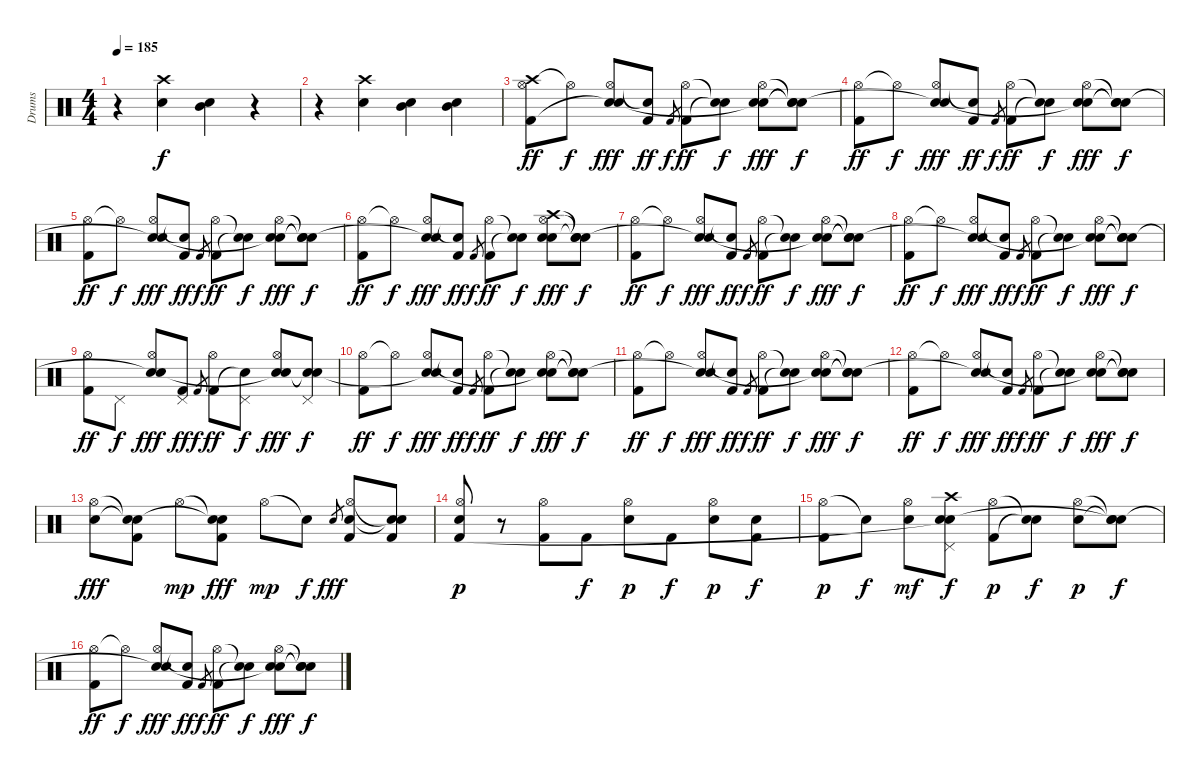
\track ("Drums" "Drums") {instrument percussion}
\staff {score}
\articulation defaults
\ts (4 4)
\tempo 185
\clef neutral
\ks c
r.4{dy f} ("Crash high (hit)" "Electric Snare (hit)").4 ("Electric Snare (hit)" "Mid Tom (hit)").4 r.4 |
r.4 ("Crash high (hit)" "Electric Snare (hit)").4 ("Electric Snare (hit)" "Mid Tom (hit)").4 ("Electric Snare (hit)" "Mid Tom (hit)").4 |
("Crash high (hit)" "Hi-Hat (open)" "Kick (hit) 2").8{dy ff} "Hi-Hat (open)"{t}.8{dy f} ("Hi-Hat (open)" "Electric Snare (hit)" "Snare (hit)"{t}).8{dy fff} ("Snare (hit)"{t} "Kick (hit) 2").8{dy ff} "Kick (hit) 2".8{gr dy f} ("Hi-Hat (open)" "Kick (hit) 2").8{dy ff} ("Snare (hit)"{t} "Snare (hit)"{t}).8{dy f} ("Hi-Hat (open)" "Electric Snare (hit)" "Snare (hit)"{t}).8{dy fff} ("Snare (hit)"{t} "Snare (hit)"{t} "Snare (hit)"{t}).8{dy f} |
("Hi-Hat (open)" "Kick (hit) 2").8{dy ff} "Hi-Hat (open)"{t}.8{dy f} ("Hi-Hat (open)" "Electric Snare (hit)" "Snare (hit)"{t}).8{dy fff} ("Snare (hit)"{t} "Kick (hit) 2").8{dy ff} "Kick (hit) 2".8{gr dy f} ("Hi-Hat (open)" "Kick (hit) 2").8{dy ff} ("Snare (hit)"{t} "Snare (hit)"{t}).8{dy f} ("Hi-Hat (open)" "Electric Snare (hit)" "Snare (hit)"{t}).8{dy fff} ("Snare (hit)"{t} "Snare (hit)"{t} "Snare (hit)"{t}).8{dy f} |
("Hi-Hat (open)" "Kick (hit) 2").8{dy ff} "Hi-Hat (open)"{t}.8{dy f} ("Hi-Hat (open)" "Electric Snare (hit)" "Snare (hit)"{t}).8{dy fff} ("Snare (hit)"{t} "Kick (hit) 2").8{dy ff} "Kick (hit) 2".8{gr dy f} ("Hi-Hat (open)" "Kick (hit) 2").8{dy ff} ("Snare (hit)"{t} "Snare (hit)"{t}).8{dy f} ("Hi-Hat (open)" "Electric Snare (hit)" "Snare (hit)"{t}).8{dy fff} ("Snare (hit)"{t} "Snare (hit)"{t} "Snare (hit)"{t}).8{dy f} |
("Hi-Hat (open)" "Kick (hit) 2").8{dy ff} "Hi-Hat (open)"{t}.8{dy f} ("Hi-Hat (open)" "Electric Snare (hit)" "Snare (hit)"{t}).8{dy fff} ("Snare (hit)"{t} "Kick (hit) 2").8{dy ff} "Kick (hit) 2".8{gr dy f} ("Hi-Hat (open)" "Kick (hit) 2").8{dy ff} ("Snare (hit)"{t} "Snare (hit)"{t}).8{dy f} ("Crash high (hit)" "Hi-Hat (open)" "Electric Snare (hit)" "Snare (hit)").8{dy fff} ("Snare (hit)"{t} "Snare (hit)"{t} "Snare (hit)"{t}).8{dy f} |
("Hi-Hat (open)" "Kick (hit) 2").8{dy ff} "Hi-Hat (open)"{t}.8{dy f} ("Hi-Hat (open)" "Electric Snare (hit)" "Snare (hit)"{t}).8{dy fff} ("Snare (hit)"{t} "Kick (hit) 2").8{dy ff} "Kick (hit) 2".8{gr dy f} ("Hi-Hat (open)" "Kick (hit) 2").8{dy ff} ("Snare (hit)"{t} "Snare (hit)"{t}).8{dy f} ("Hi-Hat (open)" "Electric Snare (hit)" "Snare (hit)"{t}).8{dy fff} ("Snare (hit)"{t} "Snare (hit)"{t} "Snare (hit)"{t}).8{dy f} |
("Hi-Hat (open)" "Kick (hit) 2").8{dy ff} "Hi-Hat (open)"{t}.8{dy f} ("Hi-Hat (open)" "Electric Snare (hit)" "Snare (hit)"{t}).8{dy fff} ("Snare (hit)"{t} "Kick (hit) 2").8{dy ff} "Kick (hit) 2".8{gr dy f} ("Hi-Hat (open)" "Kick (hit) 2").8{dy ff} ("Snare (hit)"{t} "Snare (hit)"{t}).8{dy f} ("Hi-Hat (open)" "Electric Snare (hit)" "Snare (hit)"{t}).8{dy fff} ("Snare (hit)"{t} "Snare (hit)"{t} "Snare (hit)"{t}).8{dy f} |
("Hi-Hat (open)" "Kick (hit) 2").8{dy ff} "Pedal Hi-Hat (hit)".8{dy f} ("Hi-Hat (open)" "Electric Snare (hit)" "Snare (hit)"{t}).8{dy fff} ("Pedal Hi-Hat (hit)" "Kick (hit) 2").8{dy ff} "Kick (hit) 2".8{gr dy f} ("Hi-Hat (open)" "Kick (hit) 2").8{dy ff} ("Pedal Hi-Hat (hit)" "Snare (hit)"{t}).8{dy f} ("Hi-Hat (open)" "Electric Snare (hit)" "Snare (hit)"{t}).8{dy fff} ("Pedal Hi-Hat (hit)" "Snare (hit)"{t} "Snare (hit)"{t}).8{dy f} |
("Hi-Hat (open)" "Kick (hit) 2").8{dy ff} "Hi-Hat (open)"{t}.8{dy f} ("Hi-Hat (open)" "Electric Snare (hit)" "Snare (hit)"{t}).8{dy fff} ("Snare (hit)"{t} "Kick (hit) 2").8{dy ff} "Kick (hit) 2".8{gr dy f} ("Hi-Hat (open)" "Kick (hit) 2").8{dy ff} ("Snare (hit)"{t} "Snare (hit)"{t}).8{dy f} ("Hi-Hat (open)" "Electric Snare (hit)" "Snare (hit)"{t}).8{dy fff} ("Snare (hit)"{t} "Snare (hit)"{t} "Snare (hit)"{t}).8{dy f} |
("Hi-Hat (open)" "Kick (hit) 2").8{dy ff} "Hi-Hat (open)"{t}.8{dy f} ("Hi-Hat (open)" "Electric Snare (hit)" "Snare (hit)"{t}).8{dy fff} ("Snare (hit)"{t} "Kick (hit) 2").8{dy ff} "Kick (hit) 2".8{gr dy f} ("Hi-Hat (open)" "Kick (hit) 2").8{dy ff} ("Snare (hit)"{t} "Snare (hit)"{t}).8{dy f} ("Hi-Hat (open)" "Electric Snare (hit)" "Snare (hit)"{t}).8{dy fff} ("Snare (hit)"{t} "Snare (hit)"{t} "Snare (hit)"{t}).8{dy f} |
("Hi-Hat (open)" "Kick (hit) 2").8{dy ff} "Hi-Hat (open)"{t}.8{dy f} ("Hi-Hat (open)" "Electric Snare (hit)" "Snare (hit)"{t}).8{dy fff} ("Snare (hit)"{t} "Kick (hit) 2").8{dy ff} "Kick (hit) 2".8{gr dy f} ("Hi-Hat (open)" "Kick (hit) 2").8{dy ff} ("Snare (hit)"{t} "Snare (hit)"{t}).8{dy f} ("Hi-Hat (open)" "Electric Snare (hit)" "Snare (hit)"{t}).8{dy fff} ("Snare (hit)"{t} "Snare (hit)"{t} "Snare (hit)"{t}).8{dy f} |
("Hi-Hat (open)" "Electric Snare (hit)").8{dy fff} ("Snare (hit)"{t} "Snare (hit)"{t} "Kick (hit) 2").8 "Hi-Hat (open)".8{dy mp} ("Snare (hit)"{t} "Snare (hit)"{t} "Kick (hit) 2").8{dy fff} "Hi-Hat (open)".8{dy mp} "Snare (hit)"{t}.8{dy f} "Electric Snare (hit)".8{gr dy fff} ("Hi-Hat (open)" "Electric Snare (hit)" "Kick (hit) 2").8 ("Snare (hit)"{t} "Snare (hit)"{t} "Kick (hit) 2").8 |
("Hi-Hat (open)" "Electric Snare (hit)" "Kick (hit) 2").8{dy p} r.8 ("Hi-Hat (open)" "Kick (hit) 2").8 "Kick (hit) 2".8{dy f} ("Hi-Hat (open)" "Electric Snare (hit)").8{dy p} "Kick (hit) 2".8{dy f} ("Hi-Hat (open)" "Electric Snare (hit)").8{dy p} ("Electric Snare (hit)" "Kick (hit) 2").8{dy f} |
("Hi-Hat (open)" "Kick (hit) 2").8{dy p} "Snare (hit)"{t}.8{dy f} ("Hi-Hat (open)" "Electric Snare (hit)").8{dy mf} ("Crash high (hit)" "Pedal Hi-Hat (hit)" "Snare (hit)"{t} "Snare (hit)").8{dy f} ("Hi-Hat (open)" "Kick (hit) 2").8{dy p} ("Snare (hit)"{t} "Snare (hit)"{t}).8{dy f} ("Hi-Hat (open)" "Electric Snare (hit)").8{dy p} ("Snare (hit)"{t} "Snare (hit)"{t} "Snare (hit)"{t}).8{dy f} |
("Hi-Hat (open)" "Kick (hit) 2").8{dy ff} "Hi-Hat (open)"{t}.8{dy f} ("Hi-Hat (open)" "Electric Snare (hit)" "Snare (hit)"{t}).8{dy fff} ("Snare (hit)"{t} "Kick (hit) 2").8{dy ff} "Kick (hit) 2".8{gr dy f} ("Hi-Hat (open)" "Kick (hit) 2").8{dy ff} ("Snare (hit)"{t} "Snare (hit)"{t}).8{dy f} ("Hi-Hat (open)" "Electric Snare (hit)" "Snare (hit)"{t}).8{dy fff} ("Snare (hit)"{t} "Snare (hit)"{t} "Snare (hit)"{t}).8{dy f}
